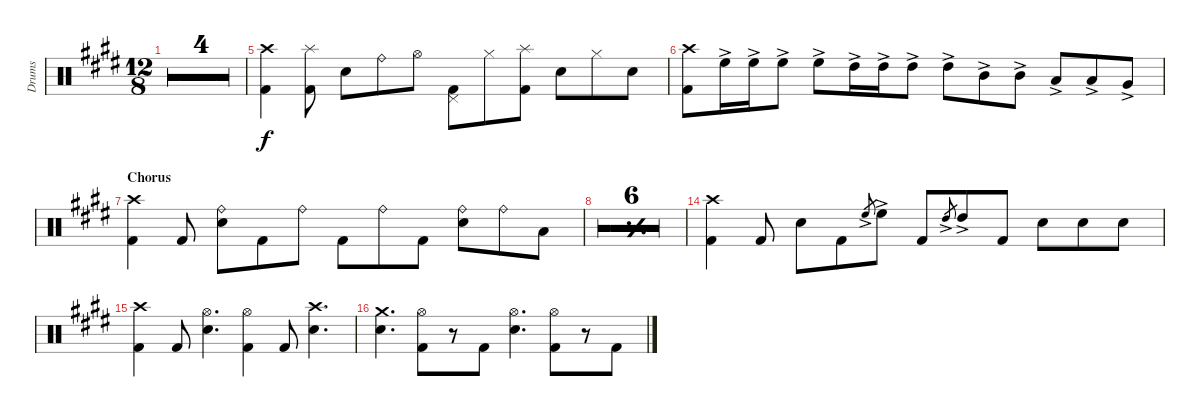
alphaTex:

\defaultSystemsLayout 4
\bracketExtendMode groupsimilarinstruments
\otherSystemsTrackNameOrientation horizontal
\track ("Drumkit" "Drums") {multiBarRest instrument percussion}
\staff {score}
\articulation defaults
\ts (12 8)
\tempo 231
\clef neutral
\simile firstofdouble
\ks e
|
\simile secondofdouble
|
\simile firstofdouble
|
\simile secondofdouble
|
("Kick (hit) 2"{acc forcenatural} "Crash high (hit)"{acc forcenatural}).4 ("Kick (hit) 2"{acc forcenatural} "Splash (hit)"{acc forcenatural}).8 "Snare (hit) 2"{acc forcenatural}.8 "Ride (bell)"{acc forcenatural}.8 "Hi-Hat (open)"{acc forcenatural}.8 ("Pedal Hi-Hat (hit)"{acc forcenatural} "Kick (hit) 2"{acc forcenatural}).8 "Hi-Hat (closed)"{acc forcenatural}.8 ("Splash (hit)"{acc forcenatural} "Kick (hit) 2"{acc forcenatural}).8 "Snare (hit) 2"{acc forcenatural}.8 "Hi-Hat (closed)"{acc forcenatural}.8 "Snare (hit) 2"{acc forcenatural}.8 |
("Kick (hit) 2"{acc forcenatural} "Crash high (hit)"{acc forcenatural}).8 "High Floor Tom (hit)"{ac acc forcenatural}.16 "High Floor Tom (hit)"{ac acc forcenatural}.16 "High Floor Tom (hit)"{ac acc forcenatural}.8 "High Floor Tom (hit)"{ac acc forcenatural}.8 "High Tom (hit)"{ac acc forcenatural}.16 "High Tom (hit)"{ac acc forcenatural}.16 "High Tom (hit)"{ac acc forcenatural}.8 "High Tom (hit)"{ac acc forcenatural}.8 "Mid Tom (hit)"{ac acc forcenatural}.8 "Mid Tom (hit)"{ac acc forcenatural}.8 "Low Tom (hit)"{ac acc forcenatural}.8 "Low Tom (hit)"{ac acc forcenatural}.8 "Very Low Tom (hit)"{ac acc forcenatural}.8 |
\section ("" "Chorus")
("Crash high (hit)"{acc forcenatural} "Kick (hit) 2"{acc forcenatural}).4 "Kick (hit) 2"{acc forcenatural}.8 ("Ride (bell)"{acc forcenatural} "Snare (hit) 2"{acc forcenatural}).8 "Kick (hit) 2"{acc forcenatural}.8 "Ride (bell)"{acc forcenatural}.8 "Kick (hit) 2"{acc forcenatural}.8 "Ride (bell)"{acc forcenatural}.8 "Kick (hit) 2"{acc forcenatural}.8 ("Ride (bell)"{acc forcenatural} "Snare (hit) 2"{acc forcenatural}).8 "Ride (bell)"{acc forcenatural}.8 "Low Tom (hit)"{acc forcenatural}.8 |
\simile simple
|
|
|
|
|
|
\simile none
("Crash high (hit)"{acc forcenatural} "Kick (hit) 2"{acc forcenatural}).4 "Kick (hit) 2"{acc forcenatural}.8 "Snare (hit) 2"{acc forcenatural}.8 "Kick (hit) 2"{acc forcenatural}.8 "High Floor Tom (hit)"{ac acc forcenatural}.8{gr} "High Floor Tom (hit)"{ac acc forcenatural}.8 "Kick (hit) 2"{acc forcenatural}.8 "High Tom (hit)"{ac acc forcenatural}.8{gr} "High Tom (hit)"{ac acc forcenatural}.8 "Kick (hit) 2"{acc forcenatural}.8 "Snare (hit) 2"{acc forcenatural}.8 "Snare (hit) 2"{acc forcenatural}.8 "Snare (hit) 2"{acc forcenatural}.8 |
("Kick (hit) 2"{acc forcenatural} "Crash high (hit)"{acc forcenatural}).4 "Kick (hit) 2"{acc forcenatural}.8 ("Snare (hit) 2"{acc forcenatural} "Hi-Hat (open)"{acc forcenatural}).4{d} ("Kick (hit) 2"{acc forcenatural} "Hi-Hat (open)"{acc forcenatural}).4 "Kick (hit) 2"{acc forcenatural}.8 ("Snare (hit) 2"{acc forcenatural} "Crash high (hit)"{acc forcenatural}).4{d} |
("Snare (hit) 2"{acc forcenatural} "Crash medium (hit)"{acc forcenatural}).4{d} ("Kick (hit) 2"{acc forcenatural} "Hi-Hat (open)"{acc forcenatural}).8 r.8 "Kick (hit) 2"{acc forcenatural}.8 ("Snare (hit) 2"{acc forcenatural} "Hi-Hat (open)"{acc forcenatural}).4{d} ("Kick (hit) 2"{acc forcenatural} "Hi-Hat (open)"{acc forcenatural}).8 r.8 "Kick (hit) 2"{acc forcenatural}.8
